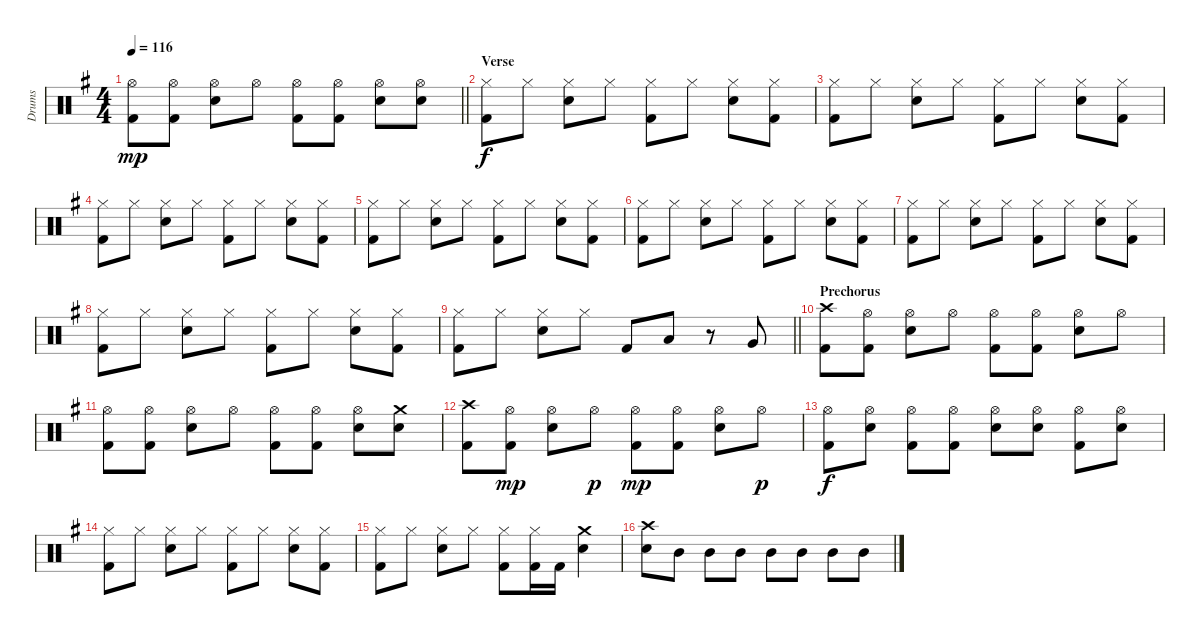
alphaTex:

\track ("Drums" "Drums") {instrument percussion}
\staff {score}
\articulation defaults
\ts (4 4)
\tempo 116
\clef neutral
\barLineRight lightlight
\ks g
("Hi-Hat (open)" "Kick (hit) 2").8{dy mp} ("Hi-Hat (open)" "Kick (hit) 2").8 ("Hi-Hat (open)" "Electric Snare (hit)").8 "Hi-Hat (open)".8 ("Hi-Hat (open)" "Kick (hit) 2").8 ("Hi-Hat (open)" "Kick (hit) 2").8 ("Hi-Hat (open)" "Electric Snare (hit)").8 ("Hi-Hat (open)" "Electric Snare (hit)").8 |
\section ("" "Verse")
("Hi-Hat (closed)" "Kick (hit) 2").8{dy f} "Hi-Hat (closed)".8 ("Hi-Hat (closed)" "Electric Snare (hit)").8 "Hi-Hat (closed)".8 ("Hi-Hat (closed)" "Kick (hit) 2").8 "Hi-Hat (closed)".8 ("Hi-Hat (closed)" "Electric Snare (hit)").8 ("Hi-Hat (closed)" "Kick (hit) 2").8 |
("Hi-Hat (closed)" "Kick (hit) 2").8 "Hi-Hat (closed)".8 ("Hi-Hat (closed)" "Electric Snare (hit)").8 "Hi-Hat (closed)".8 ("Hi-Hat (closed)" "Kick (hit) 2").8 "Hi-Hat (closed)".8 ("Hi-Hat (closed)" "Electric Snare (hit)").8 ("Hi-Hat (closed)" "Kick (hit) 2").8 |
("Hi-Hat (closed)" "Kick (hit) 2").8 "Hi-Hat (closed)".8 ("Hi-Hat (closed)" "Electric Snare (hit)").8 "Hi-Hat (closed)".8 ("Hi-Hat (closed)" "Kick (hit) 2").8 "Hi-Hat (closed)".8 ("Hi-Hat (closed)" "Electric Snare (hit)").8 ("Hi-Hat (closed)" "Kick (hit) 2").8 |
("Hi-Hat (closed)" "Kick (hit) 2").8 "Hi-Hat (closed)".8 ("Hi-Hat (closed)" "Electric Snare (hit)").8 "Hi-Hat (closed)".8 ("Hi-Hat (closed)" "Kick (hit) 2").8 "Hi-Hat (closed)".8 ("Hi-Hat (closed)" "Electric Snare (hit)").8 ("Hi-Hat (closed)" "Kick (hit) 2").8 |
("Hi-Hat (closed)" "Kick (hit) 2").8 "Hi-Hat (closed)".8 ("Hi-Hat (closed)" "Electric Snare (hit)").8 "Hi-Hat (closed)".8 ("Hi-Hat (closed)" "Kick (hit) 2").8 "Hi-Hat (closed)".8 ("Hi-Hat (closed)" "Electric Snare (hit)").8 ("Hi-Hat (closed)" "Kick (hit) 2").8 |
("Hi-Hat (closed)" "Kick (hit) 2").8 "Hi-Hat (closed)".8 ("Hi-Hat (closed)" "Electric Snare (hit)").8 "Hi-Hat (closed)".8 ("Hi-Hat (closed)" "Kick (hit) 2").8 "Hi-Hat (closed)".8 ("Hi-Hat (closed)" "Electric Snare (hit)").8 ("Hi-Hat (closed)" "Kick (hit) 2").8 |
("Hi-Hat (closed)" "Kick (hit) 2").8 "Hi-Hat (closed)".8 ("Hi-Hat (closed)" "Electric Snare (hit)").8 "Hi-Hat (closed)".8 ("Hi-Hat (closed)" "Kick (hit) 2").8 "Hi-Hat (closed)".8 ("Hi-Hat (closed)" "Electric Snare (hit)").8 ("Hi-Hat (closed)" "Kick (hit) 2").8 |
\barLineRight lightlight
("Hi-Hat (closed)" "Kick (hit) 2").8 "Hi-Hat (closed)".8 ("Hi-Hat (closed)" "Electric Snare (hit)").8 "Hi-Hat (closed)".8 "Kick (hit) 2".8 "Low Tom (hit)".8 r.8 "Very Low Tom (hit)".8 |
\section ("" "Prechorus")
("Crash high (hit)" "Kick (hit) 2").8 ("Hi-Hat (open)" "Kick (hit) 2").8 ("Hi-Hat (open)" "Electric Snare (hit)").8 "Hi-Hat (open)".8 ("Hi-Hat (open)" "Kick (hit) 2").8 ("Hi-Hat (open)" "Kick (hit) 2").8 ("Hi-Hat (open)" "Electric Snare (hit)").8 "Hi-Hat (open)".8 |
("Hi-Hat (open)" "Kick (hit) 2").8 ("Hi-Hat (open)" "Kick (hit) 2").8 ("Hi-Hat (open)" "Electric Snare (hit)").8 "Hi-Hat (open)".8 ("Hi-Hat (open)" "Kick (hit) 2").8 ("Hi-Hat (open)" "Kick (hit) 2").8 ("Hi-Hat (open)" "Electric Snare (hit)").8 ("Crash medium (hit)" "Electric Snare (hit)").8 |
("Crash high (hit)" "Kick (hit) 2").8 ("Hi-Hat (open)" "Kick (hit) 2").8{dy mp} ("Hi-Hat (open)" "Electric Snare (hit)").8 "Hi-Hat (open)".8{dy p} ("Hi-Hat (open)" "Kick (hit) 2").8{dy mp} ("Hi-Hat (open)" "Kick (hit) 2").8 ("Hi-Hat (open)" "Electric Snare (hit)").8 "Hi-Hat (open)".8{dy p} |
("Hi-Hat (open)" "Kick (hit) 2").8{dy f} ("Hi-Hat (open)" "Electric Snare (hit)").8 ("Hi-Hat (open)" "Kick (hit) 2").8 ("Hi-Hat (open)" "Kick (hit) 2").8 ("Hi-Hat (open)" "Electric Snare (hit)").8 ("Hi-Hat (open)" "Electric Snare (hit)").8 ("Hi-Hat (open)" "Kick (hit) 2").8 ("Hi-Hat (open)" "Electric Snare (hit)").8 |
("Hi-Hat (closed)" "Kick (hit) 2").8 "Hi-Hat (closed)".8 ("Hi-Hat (closed)" "Electric Snare (hit)").8 "Hi-Hat (closed)".8 ("Hi-Hat (closed)" "Kick (hit) 2").8 "Hi-Hat (closed)".8 ("Hi-Hat (closed)" "Electric Snare (hit)").8 ("Hi-Hat (closed)" "Kick (hit) 2").8 |
("Hi-Hat (closed)" "Kick (hit) 2").8 "Hi-Hat (closed)".8 ("Hi-Hat (closed)" "Electric Snare (hit)").8 "Hi-Hat (closed)".8 ("Hi-Hat (closed)" "Kick (hit) 2").8 ("Hi-Hat (closed)" "Kick (hit) 2").16 "Kick (hit) 2".16 ("Crash medium (hit)" "Electric Snare (hit)").4 |
("Crash high (hit)" "Electric Snare (hit)").8 "Mid Tom (hit)".8 "Mid Tom (hit)".8 "Mid Tom (hit)".8 "Mid Tom (hit)".8 "Mid Tom (hit)".8 "Mid Tom (hit)".8 "Mid Tom (hit)".8
